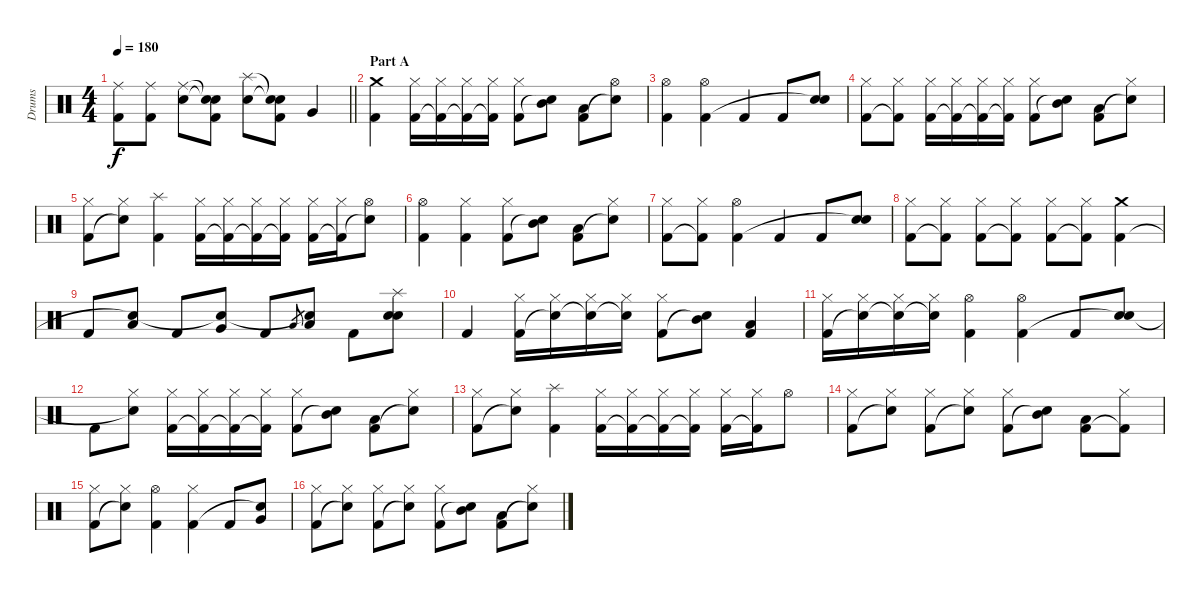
\track ("Drums" "Drums") {instrument percussion}
\staff {score}
\articulation defaults
\ts (4 4)
\tempo 180
\clef neutral
\barLineRight lightlight
\ks c
("Ride (middle)" "Kick (hit) 2").8{dy f} ("Ride (middle)" "Kick (hit) 2").8 ("Ride (middle)" "Electric Snare (hit)").8 ("Snare (hit)"{t} "Snare (hit)"{t} "Kick (hit) 2").8 ("Splash (hit)" "Electric Snare (hit)").8 ("Snare (hit)"{t} "Snare (hit)"{t} "Kick (hit) 2").8 "Very Low Tom (hit)".4 |
\section ("" "Part A")
("Crash medium (hit)" "Kick (hit) 2").4 ("Hi-Hat (closed)" "Kick (hit) 2").16 ("Hi-Hat (closed)" "Kick (hit) 2"{t}).16 ("Hi-Hat (closed)" "Kick (hit) 2"{t}).16 ("Hi-Hat (closed)" "Kick (hit) 2"{t}).16 ("Hi-Hat (closed)" "Kick (hit) 2").8 ("Mid Tom (hit)" "Snare (hit)"{t}).8 ("Low Tom (hit)" "Kick (hit) 2").8 ("Hi-Hat (open)" "Snare (hit)"{t}).8 |
("Hi-Hat (open)" "Kick (hit) 2").4 ("Hi-Hat (open)" "Kick (hit) 2").4 "Kick (hit) 2".4 "Kick (hit) 2".8 ("Electric Snare (hit)" "Snare (hit)"{t}).8 |
("Hi-Hat (closed)" "Kick (hit) 2").8 ("Hi-Hat (closed)" "Kick (hit) 2"{t}).8 ("Hi-Hat (closed)" "Kick (hit) 2").16 ("Hi-Hat (closed)" "Kick (hit) 2"{t}).16 ("Hi-Hat (closed)" "Kick (hit) 2"{t}).16 ("Hi-Hat (closed)" "Kick (hit) 2"{t}).16 ("Hi-Hat (closed)" "Kick (hit) 2").8 ("Mid Tom (hit)" "Snare (hit)"{t}).8 ("Low Tom (hit)" "Kick (hit) 2").8 ("Hi-Hat (closed)" "Snare (hit)"{t}).8 |
("Hi-Hat (closed)" "Kick (hit) 2").8 ("Hi-Hat (closed)" "Snare (hit)"{t}).8 ("Splash (hit)" "Kick (hit) 2").4 ("Hi-Hat (closed)" "Kick (hit) 2").16 ("Hi-Hat (closed)" "Kick (hit) 2"{t}).16 ("Hi-Hat (closed)" "Kick (hit) 2"{t}).16 ("Hi-Hat (closed)" "Kick (hit) 2"{t}).16 ("Hi-Hat (closed)" "Kick (hit) 2").16 ("Hi-Hat (closed)" "Kick (hit) 2"{t}).16 ("Hi-Hat (open)" "Snare (hit)"{t}).8 |
("Hi-Hat (open)" "Kick (hit) 2").4 ("Hi-Hat (closed)" "Kick (hit) 2").4 ("Hi-Hat (closed)" "Kick (hit) 2").8 ("Mid Tom (hit)" "Snare (hit)"{t}).8 ("Low Tom (hit)" "Kick (hit) 2").8 ("Hi-Hat (closed)" "Snare (hit)"{t}).8 |
("Hi-Hat (closed)" "Kick (hit) 2").8 ("Hi-Hat (closed)" "Kick (hit) 2"{t}).8 ("Hi-Hat (open)" "Kick (hit) 2").4 "Kick (hit) 2".4 "Kick (hit) 2".8 ("Electric Snare (hit)" "Snare (hit)"{t}).8 |
("Hi-Hat (closed)" "Kick (hit) 2").8 ("Hi-Hat (closed)" "Kick (hit) 2"{t}).8 ("Hi-Hat (closed)" "Kick (hit) 2").8 ("Hi-Hat (closed)" "Kick (hit) 2"{t}).8 ("Hi-Hat (closed)" "Kick (hit) 2").8 ("Hi-Hat (closed)" "Kick (hit) 2"{t}).8 ("Crash medium (hit)" "Kick (hit) 2").4 |
"Kick (hit) 2".8 ("Low Tom (hit)" "Snare (hit)"{t}).8 "Kick (hit) 2".8 ("Very Low Tom (hit)" "Snare (hit)"{t}).8 "Kick (hit) 2".8 "Low Floor Tom (hit)".8{gr} ("Low Floor Tom (hit)" "Snare (hit)"{t}).8 "Kick (hit) 2".8 ("Splash (hit)" "Electric Snare (hit)" "Snare (hit)").8 |
"Kick (hit) 2".4 ("Hi-Hat (closed)" "Kick (hit) 2").16 ("Hi-Hat (closed)" "Snare (hit)"{t}).16 ("Hi-Hat (closed)" "Snare (hit)"{t}).16 ("Hi-Hat (closed)" "Snare (hit)"{t}).16 ("Hi-Hat (closed)" "Kick (hit) 2").8 ("Mid Tom (hit)" "Snare (hit)"{t}).8 ("Low Tom (hit)" "Kick (hit) 2").4 |
("Hi-Hat (closed)" "Kick (hit) 2").16 ("Hi-Hat (closed)" "Snare (hit)"{t}).16 ("Hi-Hat (closed)" "Snare (hit)"{t}).16 ("Hi-Hat (closed)" "Snare (hit)"{t}).16 ("Hi-Hat (open)" "Kick (hit) 2").4 ("Hi-Hat (open)" "Kick (hit) 2").4 "Kick (hit) 2".8 ("Electric Snare (hit)" "Snare (hit)"{t}).8 |
"Kick (hit) 2".8 ("Hi-Hat (closed)" "Snare (hit)"{t}).8 ("Hi-Hat (closed)" "Kick (hit) 2").16 ("Hi-Hat (closed)" "Kick (hit) 2"{t}).16 ("Hi-Hat (closed)" "Kick (hit) 2"{t}).16 ("Hi-Hat (closed)" "Kick (hit) 2"{t}).16 ("Hi-Hat (closed)" "Kick (hit) 2").8 ("Mid Tom (hit)" "Snare (hit)"{t}).8 ("Low Tom (hit)" "Kick (hit) 2").8 ("Hi-Hat (closed)" "Snare (hit)"{t}).8 |
("Hi-Hat (closed)" "Kick (hit) 2").8 ("Hi-Hat (closed)" "Snare (hit)"{t}).8 ("Splash (hit)" "Kick (hit) 2").4 ("Hi-Hat (closed)" "Kick (hit) 2").16 ("Hi-Hat (closed)" "Kick (hit) 2"{t}).16 ("Hi-Hat (closed)" "Kick (hit) 2"{t}).16 ("Hi-Hat (closed)" "Kick (hit) 2"{t}).16 ("Hi-Hat (closed)" "Kick (hit) 2").16 ("Hi-Hat (closed)" "Kick (hit) 2"{t}).16 "Hi-Hat (open)".8 |
("Hi-Hat (closed)" "Kick (hit) 2").8 ("Hi-Hat (closed)" "Snare (hit)"{t}).8 ("Hi-Hat (closed)" "Kick (hit) 2").8 ("Hi-Hat (closed)" "Snare (hit)"{t}).8 ("Hi-Hat (closed)" "Kick (hit) 2").8 ("Mid Tom (hit)" "Snare (hit)"{t}).8 ("Low Tom (hit)" "Kick (hit) 2").8 ("Hi-Hat (closed)" "Kick (hit) 2"{t}).8 |
("Hi-Hat (closed)" "Kick (hit) 2").8 ("Hi-Hat (closed)" "Snare (hit)"{t}).8 ("Hi-Hat (open)" "Kick (hit) 2").4 ("Hi-Hat (closed)" "Kick (hit) 2").4 "Kick (hit) 2".8 ("Very Low Tom (hit)" "Snare (hit)"{t}).8 |
("Hi-Hat (closed)" "Kick (hit) 2").8 ("Hi-Hat (closed)" "Snare (hit)"{t}).8 ("Hi-Hat (closed)" "Kick (hit) 2").8 ("Hi-Hat (closed)" "Snare (hit)"{t}).8 ("Hi-Hat (closed)" "Kick (hit) 2").8 ("Mid Tom (hit)" "Snare (hit)"{t}).8 ("Low Tom (hit)" "Kick (hit) 2").8 ("Hi-Hat (closed)" "Snare (hit)"{t}).8
